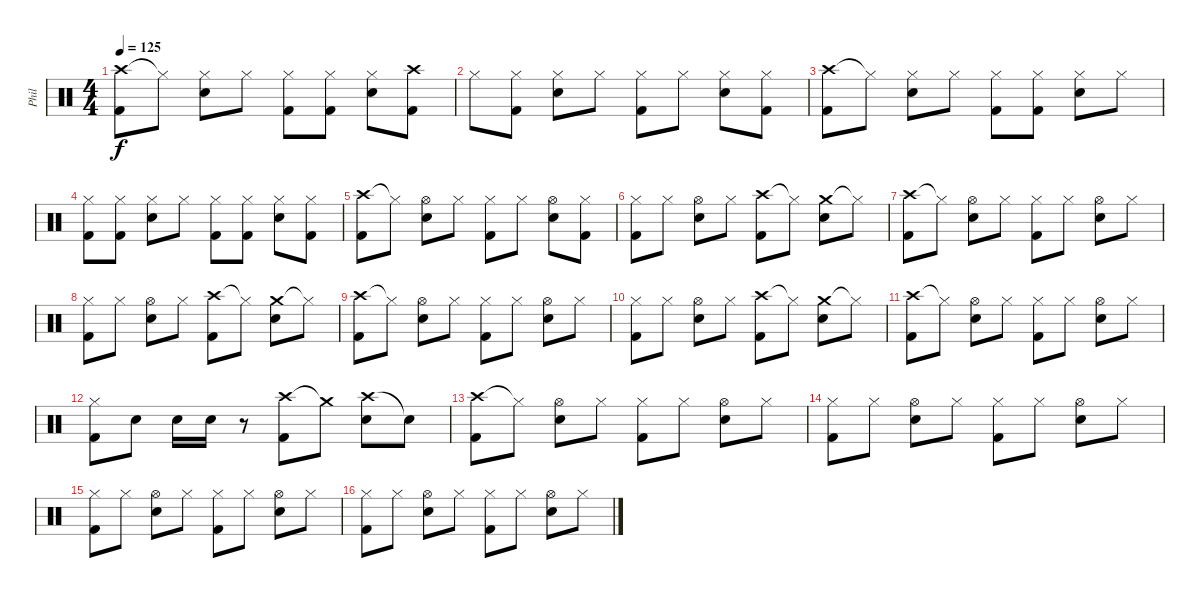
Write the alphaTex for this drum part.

\track ("Phil" "Phil") {instrument percussion}
\staff {score}
\articulation defaults
\ts (4 4)
\tempo 125
\clef neutral
\ks c
("Crash high (hit)" "Kick (hit) 2").8{dy f} "Hi-Hat (closed)"{t}.8 ("Hi-Hat (closed)" "Snare (hit) 2").8 "Hi-Hat (closed)".8 ("Hi-Hat (closed)" "Kick (hit) 2").8 ("Hi-Hat (closed)" "Kick (hit) 2").8 ("Hi-Hat (closed)" "Snare (hit) 2").8 ("Crash high (hit)" "Kick (hit) 2").8 |
"Hi-Hat (closed)".8 ("Hi-Hat (closed)" "Kick (hit) 2").8 ("Hi-Hat (closed)" "Snare (hit) 2").8 "Hi-Hat (closed)".8 ("Hi-Hat (closed)" "Kick (hit) 2").8 "Hi-Hat (closed)".8 ("Hi-Hat (closed)" "Snare (hit) 2").8 ("Hi-Hat (closed)" "Kick (hit) 2").8 |
("Crash high (hit)" "Kick (hit) 2").8 "Hi-Hat (closed)"{t}.8 ("Hi-Hat (closed)" "Snare (hit) 2").8 "Hi-Hat (closed)".8 ("Hi-Hat (closed)" "Kick (hit) 2").8 ("Hi-Hat (closed)" "Kick (hit) 2").8 ("Hi-Hat (closed)" "Snare (hit) 2").8 "Hi-Hat (closed)".8 |
("Hi-Hat (closed)" "Kick (hit) 2").8 ("Hi-Hat (closed)" "Kick (hit) 2").8 ("Hi-Hat (closed)" "Snare (hit) 2").8 "Hi-Hat (closed)".8 ("Hi-Hat (closed)" "Kick (hit) 2").8 ("Hi-Hat (closed)" "Kick (hit) 2").8 ("Hi-Hat (closed)" "Snare (hit) 2").8 ("Hi-Hat (closed)" "Kick (hit) 2").8 |
("Crash high (hit)" "Kick (hit) 2").8 "Hi-Hat (closed)"{t}.8 ("Hi-Hat (open)" "Snare (hit) 2").8 "Hi-Hat (closed)".8 ("Hi-Hat (closed)" "Kick (hit) 2").8 "Hi-Hat (closed)".8 ("Hi-Hat (open)" "Snare (hit) 2").8 ("Hi-Hat (closed)" "Kick (hit) 2").8 |
("Hi-Hat (closed)" "Kick (hit) 2").8 "Hi-Hat (closed)".8 ("Hi-Hat (open)" "Snare (hit) 2").8 "Hi-Hat (closed)".8 ("Crash high (hit)" "Kick (hit) 2").8 "Hi-Hat (closed)"{t}.8 ("Crash medium (hit)" "Snare (hit) 2").8 "Hi-Hat (closed)"{t}.8 |
("Crash high (hit)" "Kick (hit) 2").8 "Hi-Hat (closed)"{t}.8 ("Hi-Hat (open)" "Snare (hit) 2").8 "Hi-Hat (closed)".8 ("Hi-Hat (closed)" "Kick (hit) 2").8 "Hi-Hat (closed)".8 ("Hi-Hat (open)" "Snare (hit) 2").8 "Hi-Hat (closed)".8 |
("Hi-Hat (closed)" "Kick (hit) 2").8 "Hi-Hat (closed)".8 ("Hi-Hat (open)" "Snare (hit) 2").8 "Hi-Hat (closed)".8 ("Crash high (hit)" "Kick (hit) 2").8 "Hi-Hat (closed)"{t}.8 ("Crash medium (hit)" "Snare (hit) 2").8 "Hi-Hat (closed)"{t}.8 |
("Crash high (hit)" "Kick (hit) 2").8 "Hi-Hat (closed)"{t}.8 ("Hi-Hat (open)" "Snare (hit) 2").8 "Hi-Hat (closed)".8 ("Hi-Hat (closed)" "Kick (hit) 2").8 "Hi-Hat (closed)".8 ("Hi-Hat (open)" "Snare (hit) 2").8 "Hi-Hat (closed)".8 |
("Hi-Hat (closed)" "Kick (hit) 2").8 "Hi-Hat (closed)".8 ("Hi-Hat (open)" "Snare (hit) 2").8 "Hi-Hat (closed)".8 ("Crash high (hit)" "Kick (hit) 2").8 "Hi-Hat (closed)"{t}.8 ("Crash medium (hit)" "Snare (hit) 2").8 "Hi-Hat (closed)"{t}.8 |
("Crash high (hit)" "Kick (hit) 2").8 "Hi-Hat (closed)"{t}.8 ("Hi-Hat (open)" "Snare (hit) 2").8 "Hi-Hat (closed)".8 ("Hi-Hat (closed)" "Kick (hit) 2").8 "Hi-Hat (closed)".8 ("Hi-Hat (open)" "Snare (hit) 2").8 "Hi-Hat (closed)".8 |
("Hi-Hat (closed)" "Kick (hit) 2").8 "Snare (hit) 2".8 "Snare (hit) 2".16 "Snare (hit) 2".16 r.8 ("Crash high (hit)" "Kick (hit) 2").8 "Crash medium (hit)"{t}.8 ("Crash high (hit)" "Snare (hit) 2").8 "Snare (hit)"{t}.8 |
("Crash high (hit)" "Kick (hit) 2").8 "Hi-Hat (closed)"{t}.8 ("Hi-Hat (open)" "Snare (hit) 2").8 "Hi-Hat (closed)".8 ("Hi-Hat (closed)" "Kick (hit) 2").8 "Hi-Hat (closed)".8 ("Hi-Hat (open)" "Snare (hit) 2").8 "Hi-Hat (closed)".8 |
("Hi-Hat (closed)" "Kick (hit) 2").8 "Hi-Hat (closed)".8 ("Hi-Hat (open)" "Snare (hit) 2").8 "Hi-Hat (closed)".8 ("Hi-Hat (closed)" "Kick (hit) 2").8 "Hi-Hat (closed)".8 ("Hi-Hat (open)" "Snare (hit) 2").8 "Hi-Hat (closed)".8 |
("Hi-Hat (closed)" "Kick (hit) 2").8 "Hi-Hat (closed)".8 ("Hi-Hat (open)" "Snare (hit) 2").8 "Hi-Hat (closed)".8 ("Hi-Hat (closed)" "Kick (hit) 2").8 "Hi-Hat (closed)".8 ("Hi-Hat (open)" "Snare (hit) 2").8 "Hi-Hat (closed)".8 |
("Hi-Hat (closed)" "Kick (hit) 2").8 "Hi-Hat (closed)".8 ("Hi-Hat (open)" "Snare (hit) 2").8 "Hi-Hat (closed)".8 ("Hi-Hat (closed)" "Kick (hit) 2").8 "Hi-Hat (closed)".8 ("Hi-Hat (open)" "Snare (hit) 2").8 "Hi-Hat (closed)".8
